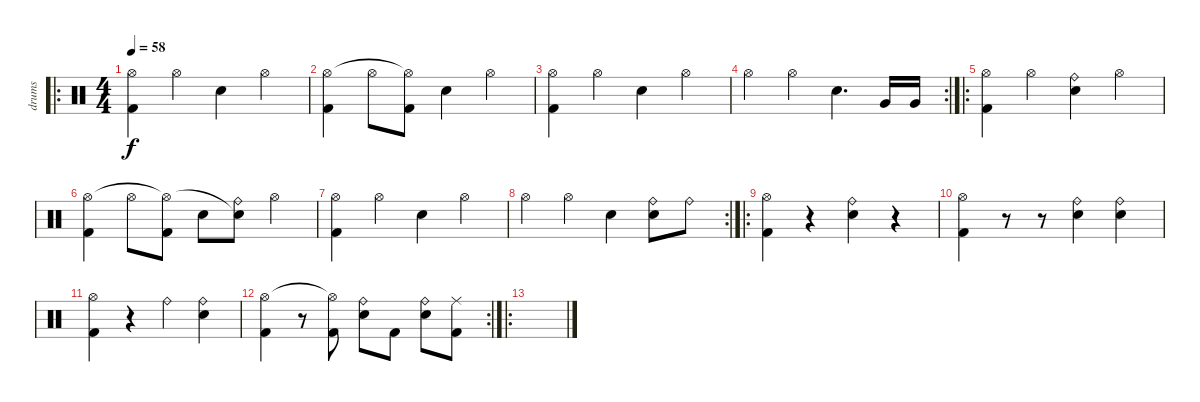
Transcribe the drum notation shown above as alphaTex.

\track ("drums" "drums") {instrument percussion}
\staff {score}
\articulation defaults
\ro
\ts (4 4)
\tempo 58
\clef neutral
\ks c
("Kick (hit) 2" "Hi-Hat (open)").4{dy f} "Hi-Hat (open)".4 "Snare (hit) 2".4 "Hi-Hat (open)".4 |
("Kick (hit) 2" "Hi-Hat (open)").4 "Hi-Hat (open)".8 ("Kick (hit) 2" "Hi-Hat (open)"{t}).8 "Snare (hit) 2".4 "Hi-Hat (open)".4 |
("Kick (hit) 2" "Hi-Hat (open)").4 "Hi-Hat (open)".4 "Snare (hit) 2".4 "Hi-Hat (open)".4 |
\rc 2 "Hi-Hat (open)".4 "Hi-Hat (open)".4 "Snare (hit) 2".4{d} "Very Low Tom (hit)".16 "Very Low Tom (hit)".16
|
\ro
("Kick (hit) 2" "Hi-Hat (open)").4 "Hi-Hat (open)".4 ("Ride (bell)" "Snare (hit) 2").4 "Hi-Hat (open)".4 |
("Kick (hit) 2" "Hi-Hat (open)").4 "Hi-Hat (open)".8 ("Kick (hit) 2" "Hi-Hat (open)"{t}).8 "Snare (hit) 2".8 ("Ride (bell)" "Snare (hit) 2"{t}).8 "Hi-Hat (open)".4 |
("Kick (hit) 2" "Hi-Hat (open)").4 "Hi-Hat (open)".4 "Snare (hit) 2".4 "Hi-Hat (open)".4 |
\rc 2 "Hi-Hat (open)".4 "Hi-Hat (open)".4 "Snare (hit) 2".4
("Ride (bell)" "Snare (hit) 2").8 "Ride (bell)".8 |
\ro
("Kick (hit) 2" "Hi-Hat (open)").4 r.4 ("Ride (bell)" "Snare (hit) 2").4 r.4 |
("Kick (hit) 2" "Hi-Hat (open)").4 r.8 r.8 ("Ride (bell)" "Snare (hit) 2").4 ("Ride (bell)" "Snare (hit) 2").4 |
("Kick (hit) 2" "Hi-Hat (open)").4 r.4 "Ride (bell)".4 ("Ride (bell)" "Snare (hit) 2").4 |
\rc 2
("Kick (hit) 2" "Hi-Hat (open)").4 r.8 ("Kick (hit) 2" "Hi-Hat (open)"{t}).8 ("Ride (bell)" "Snare (hit) 2").8 "Kick (hit) 2".8 ("Ride (bell)" "Snare (hit) 2").8 ("Kick (hit) 2" "Ride (middle)").8 |
\ro
